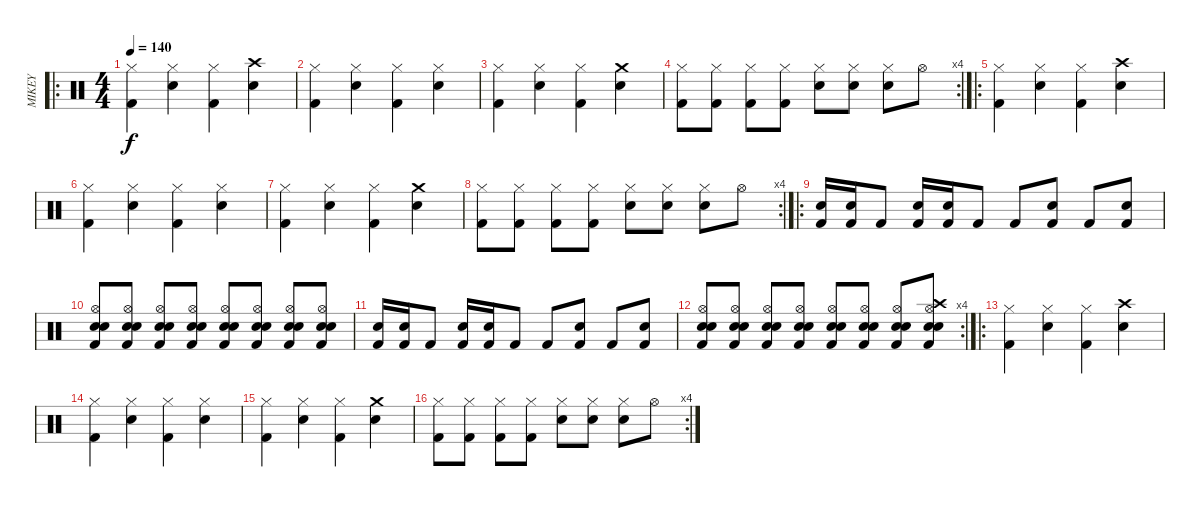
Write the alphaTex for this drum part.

\track ("MIKEY" "MIKEY") {instrument percussion}
\staff {score}
\articulation defaults
\ro
\ts (4 4)
\tempo 140
\clef neutral
\ks c
("Hi-Hat (closed)" "Kick (hit) 2").4{dy f} ("Hi-Hat (closed)" "Snare (hit) 2").4 ("Hi-Hat (closed)" "Kick (hit) 2").4 ("Crash high (hit)" "Snare (hit) 2").4 |
("Hi-Hat (closed)" "Kick (hit) 2").4 ("Hi-Hat (closed)" "Snare (hit) 2").4 ("Hi-Hat (closed)" "Kick (hit) 2").4 ("Hi-Hat (closed)" "Snare (hit) 2").4 |
("Hi-Hat (closed)" "Kick (hit) 2").4 ("Hi-Hat (closed)" "Snare (hit) 2").4 ("Hi-Hat (closed)" "Kick (hit) 2").4 ("Crash medium (hit)" "Snare (hit) 2").4 |
\rc 4
("Hi-Hat (closed)" "Kick (hit) 2").8 ("Hi-Hat (closed)" "Kick (hit) 2").8 ("Hi-Hat (closed)" "Kick (hit) 2").8 ("Hi-Hat (closed)" "Kick (hit) 2").8 ("Hi-Hat (closed)" "Snare (hit) 2").8 ("Hi-Hat (closed)" "Snare (hit) 2").8 ("Hi-Hat (closed)" "Snare (hit) 2").8 "Hi-Hat (open)".8 |
\ro
("Hi-Hat (closed)" "Kick (hit) 2").4 ("Hi-Hat (closed)" "Snare (hit) 2").4 ("Hi-Hat (closed)" "Kick (hit) 2").4 ("Crash high (hit)" "Snare (hit) 2").4 |
("Hi-Hat (closed)" "Kick (hit) 2").4 ("Hi-Hat (closed)" "Snare (hit) 2").4 ("Hi-Hat (closed)" "Kick (hit) 2").4 ("Hi-Hat (closed)" "Snare (hit) 2").4 |
("Hi-Hat (closed)" "Kick (hit) 2").4 ("Hi-Hat (closed)" "Snare (hit) 2").4 ("Hi-Hat (closed)" "Kick (hit) 2").4 ("Crash medium (hit)" "Snare (hit) 2").4 |
\rc 4
("Hi-Hat (closed)" "Kick (hit) 2").8 ("Hi-Hat (closed)" "Kick (hit) 2").8 ("Hi-Hat (closed)" "Kick (hit) 2").8 ("Hi-Hat (closed)" "Kick (hit) 2").8 ("Hi-Hat (closed)" "Snare (hit) 2").8 ("Hi-Hat (closed)" "Snare (hit) 2").8 ("Hi-Hat (closed)" "Snare (hit) 2").8 "Hi-Hat (open)".8 |
\ro
("Snare (hit) 2" "Kick (hit) 2").16 ("Snare (hit) 2" "Kick (hit) 2").16 "Kick (hit) 2".8 ("Snare (hit) 2" "Kick (hit) 2").16 ("Snare (hit) 2" "Kick (hit) 2").16 "Kick (hit) 2".8 "Kick (hit) 2".8 ("Snare (hit) 2" "Kick (hit) 2").8 "Kick (hit) 2".8 ("Snare (hit) 2" "Kick (hit) 2").8 |
("Electric Snare (hit)" "Kick (hit) 2" "Hi-Hat (open)" "Electric Snare (hit)").8 ("Electric Snare (hit)" "Kick (hit) 2" "Hi-Hat (open)" "Electric Snare (hit)").8 ("Electric Snare (hit)" "Kick (hit) 2" "Hi-Hat (open)" "Electric Snare (hit)").8 ("Electric Snare (hit)" "Kick (hit) 2" "Hi-Hat (open)" "Electric Snare (hit)").8 ("Electric Snare (hit)" "Kick (hit) 2" "Hi-Hat (open)" "Electric Snare (hit)").8 ("Electric Snare (hit)" "Kick (hit) 2" "Hi-Hat (open)" "Electric Snare (hit)").8 ("Electric Snare (hit)" "Kick (hit) 2" "Hi-Hat (open)" "Electric Snare (hit)").8 ("Electric Snare (hit)" "Kick (hit) 2" "Hi-Hat (open)" "Electric Snare (hit)").8 |
("Snare (hit) 2" "Kick (hit) 2").16 ("Snare (hit) 2" "Kick (hit) 2").16 "Kick (hit) 2".8 ("Snare (hit) 2" "Kick (hit) 2").16 ("Snare (hit) 2" "Kick (hit) 2").16 "Kick (hit) 2".8 "Kick (hit) 2".8 ("Snare (hit) 2" "Kick (hit) 2").8 "Kick (hit) 2".8 ("Snare (hit) 2" "Kick (hit) 2").8 |
\rc 4
("Electric Snare (hit)" "Kick (hit) 2" "Hi-Hat (open)" "Electric Snare (hit)").8 ("Electric Snare (hit)" "Kick (hit) 2" "Hi-Hat (open)" "Electric Snare (hit)").8 ("Electric Snare (hit)" "Kick (hit) 2" "Hi-Hat (open)" "Electric Snare (hit)").8 ("Electric Snare (hit)" "Kick (hit) 2" "Hi-Hat (open)" "Electric Snare (hit)").8 ("Electric Snare (hit)" "Kick (hit) 2" "Hi-Hat (open)" "Electric Snare (hit)").8 ("Electric Snare (hit)" "Kick (hit) 2" "Hi-Hat (open)" "Electric Snare (hit)").8 ("Electric Snare (hit)" "Kick (hit) 2" "Hi-Hat (open)" "Electric Snare (hit)").8 ("Crash high (hit)" "Electric Snare (hit)" "Kick (hit) 2" "Hi-Hat (open)" "Electric Snare (hit)").8 |
\ro
("Hi-Hat (closed)" "Kick (hit) 2").4 ("Hi-Hat (closed)" "Snare (hit) 2").4 ("Hi-Hat (closed)" "Kick (hit) 2").4 ("Crash high (hit)" "Snare (hit) 2").4 |
("Hi-Hat (closed)" "Kick (hit) 2").4 ("Hi-Hat (closed)" "Snare (hit) 2").4 ("Hi-Hat (closed)" "Kick (hit) 2").4 ("Hi-Hat (closed)" "Snare (hit) 2").4 |
("Hi-Hat (closed)" "Kick (hit) 2").4 ("Hi-Hat (closed)" "Snare (hit) 2").4 ("Hi-Hat (closed)" "Kick (hit) 2").4 ("Crash medium (hit)" "Snare (hit) 2").4 |
\rc 4
("Hi-Hat (closed)" "Kick (hit) 2").8 ("Hi-Hat (closed)" "Kick (hit) 2").8 ("Hi-Hat (closed)" "Kick (hit) 2").8 ("Hi-Hat (closed)" "Kick (hit) 2").8 ("Hi-Hat (closed)" "Snare (hit) 2").8 ("Hi-Hat (closed)" "Snare (hit) 2").8 ("Hi-Hat (closed)" "Snare (hit) 2").8 "Hi-Hat (open)".8
